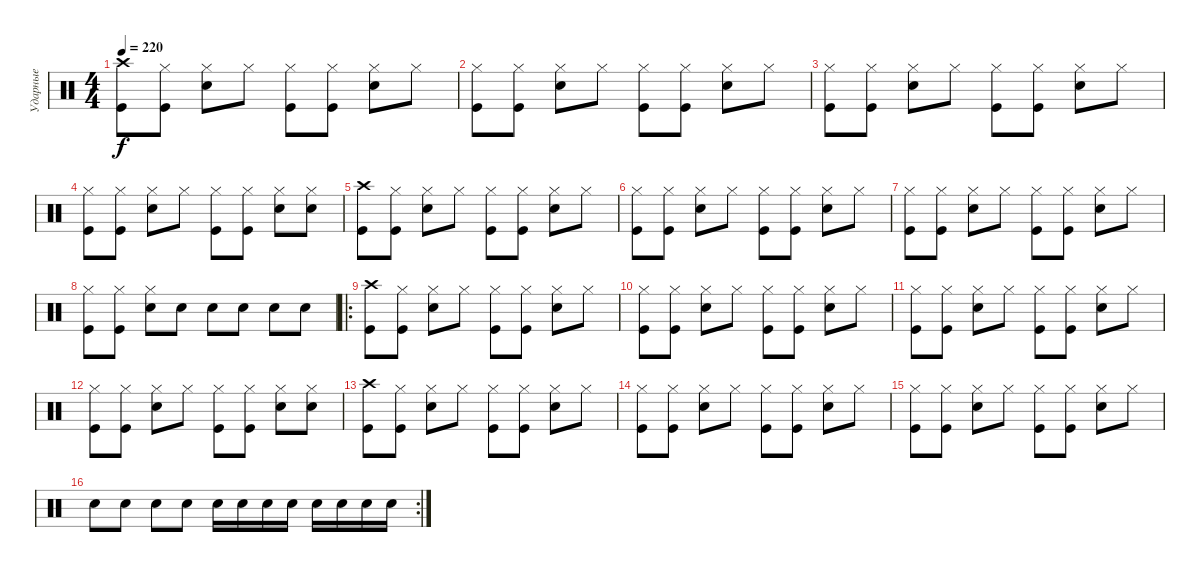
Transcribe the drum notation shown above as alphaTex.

\track ("Ударные" "Ударные") {instrument percussion}
\staff {score}
\articulation defaults
\ts (4 4)
\tempo 220
\clef neutral
\ks c
("Crash high (hit)" "Kick (hit)").8{dy f} ("Hi-Hat (closed)" "Kick (hit)").8 ("Hi-Hat (closed)" "Snare (hit) 2").8 "Hi-Hat (closed)".8 ("Hi-Hat (closed)" "Kick (hit)").8 ("Hi-Hat (closed)" "Kick (hit)").8 ("Hi-Hat (closed)" "Snare (hit) 2").8 "Hi-Hat (closed)".8 |
("Hi-Hat (closed)" "Kick (hit)").8 ("Hi-Hat (closed)" "Kick (hit)").8 ("Hi-Hat (closed)" "Snare (hit) 2").8 "Hi-Hat (closed)".8 ("Hi-Hat (closed)" "Kick (hit)").8 ("Hi-Hat (closed)" "Kick (hit)").8 ("Hi-Hat (closed)" "Snare (hit) 2").8 "Hi-Hat (closed)".8 |
("Hi-Hat (closed)" "Kick (hit)").8 ("Hi-Hat (closed)" "Kick (hit)").8 ("Hi-Hat (closed)" "Snare (hit) 2").8 "Hi-Hat (closed)".8 ("Hi-Hat (closed)" "Kick (hit)").8 ("Hi-Hat (closed)" "Kick (hit)").8 ("Hi-Hat (closed)" "Snare (hit) 2").8 "Hi-Hat (closed)".8 |
("Hi-Hat (closed)" "Kick (hit)").8 ("Hi-Hat (closed)" "Kick (hit)").8 ("Hi-Hat (closed)" "Snare (hit) 2").8 "Hi-Hat (closed)".8 ("Hi-Hat (closed)" "Kick (hit)").8 ("Hi-Hat (closed)" "Kick (hit)").8 ("Hi-Hat (closed)" "Snare (hit) 2").8 ("Hi-Hat (closed)" "Snare (hit) 2").8 |
("Crash high (hit)" "Kick (hit)").8 ("Hi-Hat (closed)" "Kick (hit)").8 ("Hi-Hat (closed)" "Snare (hit) 2").8 "Hi-Hat (closed)".8 ("Hi-Hat (closed)" "Kick (hit)").8 ("Hi-Hat (closed)" "Kick (hit)").8 ("Hi-Hat (closed)" "Snare (hit) 2").8 "Hi-Hat (closed)".8 |
("Hi-Hat (closed)" "Kick (hit)").8 ("Hi-Hat (closed)" "Kick (hit)").8 ("Hi-Hat (closed)" "Snare (hit) 2").8 "Hi-Hat (closed)".8 ("Hi-Hat (closed)" "Kick (hit)").8 ("Hi-Hat (closed)" "Kick (hit)").8 ("Hi-Hat (closed)" "Snare (hit) 2").8 "Hi-Hat (closed)".8 |
("Hi-Hat (closed)" "Kick (hit)").8 ("Hi-Hat (closed)" "Kick (hit)").8 ("Hi-Hat (closed)" "Snare (hit) 2").8 "Hi-Hat (closed)".8 ("Hi-Hat (closed)" "Kick (hit)").8 ("Hi-Hat (closed)" "Kick (hit)").8 ("Hi-Hat (closed)" "Snare (hit) 2").8 "Hi-Hat (closed)".8 |
("Hi-Hat (closed)" "Kick (hit)").8 ("Hi-Hat (closed)" "Kick (hit)").8 ("Hi-Hat (closed)" "Snare (hit) 2").8 "Snare (hit) 2".8 "Snare (hit) 2".8 "Snare (hit) 2".8 "Snare (hit) 2".8 "Snare (hit) 2".8 |
\ro
("Crash high (hit)" "Kick (hit)").8 ("Hi-Hat (closed)" "Kick (hit)").8 ("Hi-Hat (closed)" "Snare (hit) 2").8 "Hi-Hat (closed)".8 ("Hi-Hat (closed)" "Kick (hit)").8 ("Hi-Hat (closed)" "Kick (hit)").8 ("Hi-Hat (closed)" "Snare (hit) 2").8 "Hi-Hat (closed)".8 |
("Hi-Hat (closed)" "Kick (hit)").8 ("Hi-Hat (closed)" "Kick (hit)").8 ("Hi-Hat (closed)" "Snare (hit) 2").8 "Hi-Hat (closed)".8 ("Hi-Hat (closed)" "Kick (hit)").8 ("Hi-Hat (closed)" "Kick (hit)").8 ("Hi-Hat (closed)" "Snare (hit) 2").8 "Hi-Hat (closed)".8 |
("Hi-Hat (closed)" "Kick (hit)").8 ("Hi-Hat (closed)" "Kick (hit)").8 ("Hi-Hat (closed)" "Snare (hit) 2").8 "Hi-Hat (closed)".8 ("Hi-Hat (closed)" "Kick (hit)").8 ("Hi-Hat (closed)" "Kick (hit)").8 ("Hi-Hat (closed)" "Snare (hit) 2").8 "Hi-Hat (closed)".8 |
("Hi-Hat (closed)" "Kick (hit)").8 ("Hi-Hat (closed)" "Kick (hit)").8 ("Hi-Hat (closed)" "Snare (hit) 2").8 "Hi-Hat (closed)".8 ("Hi-Hat (closed)" "Kick (hit)").8 ("Hi-Hat (closed)" "Kick (hit)").8 ("Hi-Hat (closed)" "Snare (hit) 2").8 ("Hi-Hat (closed)" "Snare (hit) 2").8 |
("Crash high (hit)" "Kick (hit)").8 ("Hi-Hat (closed)" "Kick (hit)").8 ("Hi-Hat (closed)" "Snare (hit) 2").8 "Hi-Hat (closed)".8 ("Hi-Hat (closed)" "Kick (hit)").8 ("Hi-Hat (closed)" "Kick (hit)").8 ("Hi-Hat (closed)" "Snare (hit) 2").8 "Hi-Hat (closed)".8 |
("Hi-Hat (closed)" "Kick (hit)").8 ("Hi-Hat (closed)" "Kick (hit)").8 ("Hi-Hat (closed)" "Snare (hit) 2").8 "Hi-Hat (closed)".8 ("Hi-Hat (closed)" "Kick (hit)").8 ("Hi-Hat (closed)" "Kick (hit)").8 ("Hi-Hat (closed)" "Snare (hit) 2").8 "Hi-Hat (closed)".8 |
("Hi-Hat (closed)" "Kick (hit)").8 ("Hi-Hat (closed)" "Kick (hit)").8 ("Hi-Hat (closed)" "Snare (hit) 2").8 "Hi-Hat (closed)".8 ("Hi-Hat (closed)" "Kick (hit)").8 ("Hi-Hat (closed)" "Kick (hit)").8 ("Hi-Hat (closed)" "Snare (hit) 2").8 "Hi-Hat (closed)".8 |
\rc 2 "Snare (hit) 2".8 "Snare (hit) 2".8 "Snare (hit) 2".8 "Snare (hit) 2".8 "Snare (hit) 2".16 "Snare (hit) 2".16 "Snare (hit) 2".16 "Snare (hit) 2".16 "Snare (hit) 2".16 "Snare (hit) 2".16 "Snare (hit) 2".16 "Snare (hit) 2".16
